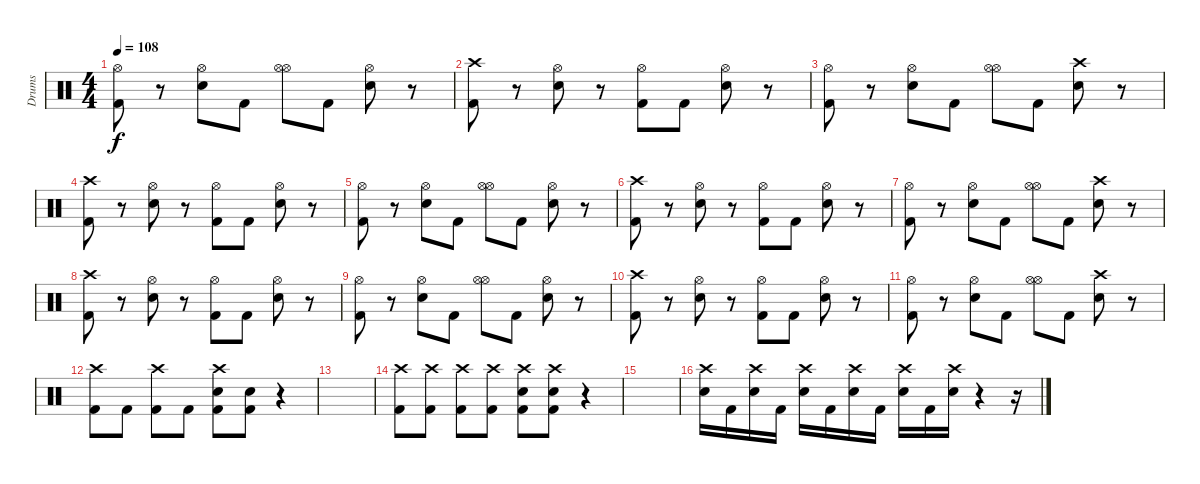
\track ("Drums" "Drums") {instrument percussion}
\staff {score}
\articulation defaults
\ts (4 4)
\tempo 108
\clef neutral
\ks c
("Hi-Hat (open)" "Kick (hit) 2").8{dy f} r.8 ("Hi-Hat (open)" "Snare (hit) 2").8 "Kick (hit) 2".8 ("Hi-Hat (open)" "Hi-Hat (open)").8 "Kick (hit) 2".8 ("Hi-Hat (open)" "Snare (hit) 2").8 r.8 |
("Crash high (hit)" "Kick (hit) 2").8 r.8 ("Hi-Hat (open)" "Snare (hit) 2").8 r.8 ("Hi-Hat (open)" "Kick (hit) 2").8 "Kick (hit) 2".8 ("Hi-Hat (open)" "Snare (hit) 2").8 r.8 |
("Hi-Hat (open)" "Kick (hit) 2").8 r.8 ("Hi-Hat (open)" "Snare (hit) 2").8 "Kick (hit) 2".8 ("Hi-Hat (open)" "Hi-Hat (open)").8 "Kick (hit) 2".8 ("Crash high (hit)" "Snare (hit) 2").8 r.8 |
("Crash high (hit)" "Kick (hit) 2").8 r.8 ("Hi-Hat (open)" "Snare (hit) 2").8 r.8 ("Hi-Hat (open)" "Kick (hit) 2").8 "Kick (hit) 2".8 ("Hi-Hat (open)" "Snare (hit) 2").8 r.8 |
("Hi-Hat (open)" "Kick (hit) 2").8 r.8 ("Hi-Hat (open)" "Snare (hit) 2").8 "Kick (hit) 2".8 ("Hi-Hat (open)" "Hi-Hat (open)").8 "Kick (hit) 2".8 ("Hi-Hat (open)" "Snare (hit) 2").8 r.8 |
("Crash high (hit)" "Kick (hit) 2").8 r.8 ("Hi-Hat (open)" "Snare (hit) 2").8 r.8 ("Hi-Hat (open)" "Kick (hit) 2").8 "Kick (hit) 2".8 ("Hi-Hat (open)" "Snare (hit) 2").8 r.8 |
("Hi-Hat (open)" "Kick (hit) 2").8 r.8 ("Hi-Hat (open)" "Snare (hit) 2").8 "Kick (hit) 2".8 ("Hi-Hat (open)" "Hi-Hat (open)").8 "Kick (hit) 2".8 ("Crash high (hit)" "Snare (hit) 2").8 r.8 |
("Crash high (hit)" "Kick (hit) 2").8 r.8 ("Hi-Hat (open)" "Snare (hit) 2").8 r.8 ("Hi-Hat (open)" "Kick (hit) 2").8 "Kick (hit) 2".8 ("Hi-Hat (open)" "Snare (hit) 2").8 r.8 |
("Hi-Hat (open)" "Kick (hit) 2").8 r.8 ("Hi-Hat (open)" "Snare (hit) 2").8 "Kick (hit) 2".8 ("Hi-Hat (open)" "Hi-Hat (open)").8 "Kick (hit) 2".8 ("Hi-Hat (open)" "Snare (hit) 2").8 r.8 |
("Crash high (hit)" "Kick (hit) 2").8 r.8 ("Hi-Hat (open)" "Snare (hit) 2").8 r.8 ("Hi-Hat (open)" "Kick (hit) 2").8 "Kick (hit) 2".8 ("Hi-Hat (open)" "Snare (hit) 2").8 r.8 |
("Hi-Hat (open)" "Kick (hit) 2").8 r.8 ("Hi-Hat (open)" "Snare (hit) 2").8 "Kick (hit) 2".8 ("Hi-Hat (open)" "Hi-Hat (open)").8 "Kick (hit) 2".8 ("Crash high (hit)" "Snare (hit) 2").8 r.8 |
("Kick (hit) 2" "Crash high (hit)").8 "Kick (hit) 2".8 ("Kick (hit) 2" "Crash high (hit)").8 "Kick (hit) 2".8 ("Snare (hit) 2" "Kick (hit) 2" "Crash high (hit)").8 ("Snare (hit) 2" "Kick (hit) 2").8 r.4 |
|
("Kick (hit) 2" "Crash high (hit)").8 ("Kick (hit) 2" "Crash high (hit)").8 ("Kick (hit) 2" "Crash high (hit)").8 ("Kick (hit) 2" "Crash high (hit)").8 ("Snare (hit) 2" "Kick (hit) 2" "Crash high (hit)").8 ("Snare (hit) 2" "Kick (hit) 2" "Crash high (hit)").8 r.4 |
|
("Snare (hit) 2" "Crash high (hit)").16 "Kick (hit) 2".16 ("Snare (hit) 2" "Crash high (hit)").16 "Kick (hit) 2".16 ("Snare (hit) 2" "Crash high (hit)").16 "Kick (hit) 2".16 ("Snare (hit) 2" "Crash high (hit)").16 "Kick (hit) 2".16 ("Snare (hit) 2" "Crash high (hit)").16 "Kick (hit) 2".16 ("Snare (hit) 2" "Crash high (hit)").16 r.4 r.16
